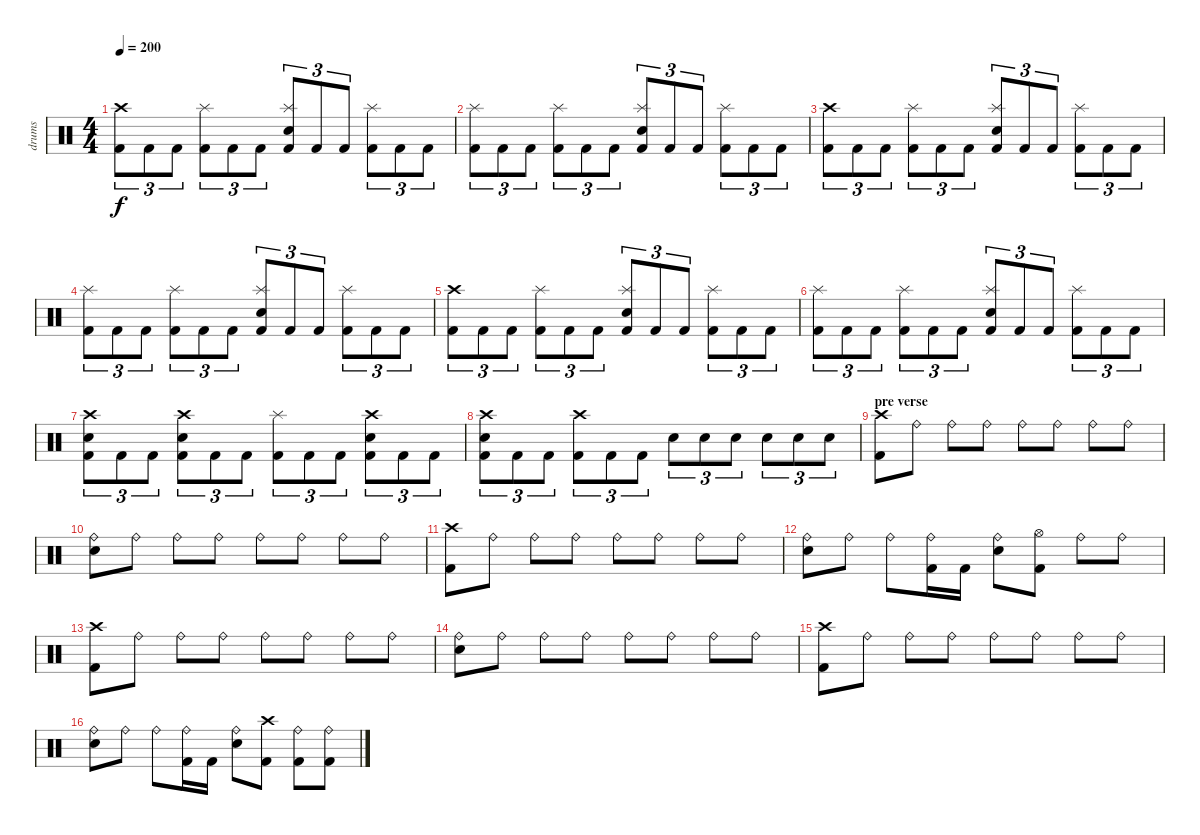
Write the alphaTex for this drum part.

\track ("drums" "drums") {instrument percussion}
\staff {score}
\articulation defaults
\ts (4 4)
\tempo 200
\clef neutral
\ks c
("Crash high (hit)" "Kick (hit) 2").8{tu (3 2) dy f} "Kick (hit) 2".8{tu (3 2)} "Kick (hit) 2".8{tu (3 2)} ("Splash (hit)" "Kick (hit) 2").8{tu (3 2)} "Kick (hit) 2".8{tu (3 2)} "Kick (hit) 2".8{tu (3 2)} ("Splash (hit)" "Electric Snare (hit)" "Kick (hit) 2").8{tu (3 2)} "Kick (hit) 2".8{tu (3 2)} "Kick (hit) 2".8{tu (3 2)} ("Splash (hit)" "Kick (hit) 2").8{tu (3 2)} "Kick (hit) 2".8{tu (3 2)} "Kick (hit) 2".8{tu (3 2)} |
("Splash (hit)" "Kick (hit) 2").8{tu (3 2)} "Kick (hit) 2".8{tu (3 2)} "Kick (hit) 2".8{tu (3 2)} ("Splash (hit)" "Kick (hit) 2").8{tu (3 2)} "Kick (hit) 2".8{tu (3 2)} "Kick (hit) 2".8{tu (3 2)} ("Splash (hit)" "Electric Snare (hit)" "Kick (hit) 2").8{tu (3 2)} "Kick (hit) 2".8{tu (3 2)} "Kick (hit) 2".8{tu (3 2)} ("Splash (hit)" "Kick (hit) 2").8{tu (3 2)} "Kick (hit) 2".8{tu (3 2)} "Kick (hit) 2".8{tu (3 2)} |
("Crash high (hit)" "Kick (hit) 2").8{tu (3 2)} "Kick (hit) 2".8{tu (3 2)} "Kick (hit) 2".8{tu (3 2)} ("Splash (hit)" "Kick (hit) 2").8{tu (3 2)} "Kick (hit) 2".8{tu (3 2)} "Kick (hit) 2".8{tu (3 2)} ("Splash (hit)" "Electric Snare (hit)" "Kick (hit) 2").8{tu (3 2)} "Kick (hit) 2".8{tu (3 2)} "Kick (hit) 2".8{tu (3 2)} ("Splash (hit)" "Kick (hit) 2").8{tu (3 2)} "Kick (hit) 2".8{tu (3 2)} "Kick (hit) 2".8{tu (3 2)} |
("Splash (hit)" "Kick (hit) 2").8{tu (3 2)} "Kick (hit) 2".8{tu (3 2)} "Kick (hit) 2".8{tu (3 2)} ("Splash (hit)" "Kick (hit) 2").8{tu (3 2)} "Kick (hit) 2".8{tu (3 2)} "Kick (hit) 2".8{tu (3 2)} ("Splash (hit)" "Electric Snare (hit)" "Kick (hit) 2").8{tu (3 2)} "Kick (hit) 2".8{tu (3 2)} "Kick (hit) 2".8{tu (3 2)} ("Splash (hit)" "Kick (hit) 2").8{tu (3 2)} "Kick (hit) 2".8{tu (3 2)} "Kick (hit) 2".8{tu (3 2)} |
("Crash high (hit)" "Kick (hit) 2").8{tu (3 2)} "Kick (hit) 2".8{tu (3 2)} "Kick (hit) 2".8{tu (3 2)} ("Splash (hit)" "Kick (hit) 2").8{tu (3 2)} "Kick (hit) 2".8{tu (3 2)} "Kick (hit) 2".8{tu (3 2)} ("Splash (hit)" "Electric Snare (hit)" "Kick (hit) 2").8{tu (3 2)} "Kick (hit) 2".8{tu (3 2)} "Kick (hit) 2".8{tu (3 2)} ("Splash (hit)" "Kick (hit) 2").8{tu (3 2)} "Kick (hit) 2".8{tu (3 2)} "Kick (hit) 2".8{tu (3 2)} |
("Splash (hit)" "Kick (hit) 2").8{tu (3 2)} "Kick (hit) 2".8{tu (3 2)} "Kick (hit) 2".8{tu (3 2)} ("Splash (hit)" "Kick (hit) 2").8{tu (3 2)} "Kick (hit) 2".8{tu (3 2)} "Kick (hit) 2".8{tu (3 2)} ("Splash (hit)" "Electric Snare (hit)" "Kick (hit) 2").8{tu (3 2)} "Kick (hit) 2".8{tu (3 2)} "Kick (hit) 2".8{tu (3 2)} ("Splash (hit)" "Kick (hit) 2").8{tu (3 2)} "Kick (hit) 2".8{tu (3 2)} "Kick (hit) 2".8{tu (3 2)} |
("Crash high (hit)" "Electric Snare (hit)" "Kick (hit) 2").8{tu (3 2)} "Kick (hit) 2".8{tu (3 2)} "Kick (hit) 2".8{tu (3 2)} ("Crash high (hit)" "Electric Snare (hit)" "Kick (hit) 2").8{tu (3 2)} "Kick (hit) 2".8{tu (3 2)} "Kick (hit) 2".8{tu (3 2)} ("Splash (hit)" "Kick (hit) 2").8{tu (3 2)} "Kick (hit) 2".8{tu (3 2)} "Kick (hit) 2".8{tu (3 2)} ("Crash high (hit)" "Electric Snare (hit)" "Kick (hit) 2").8{tu (3 2)} "Kick (hit) 2".8{tu (3 2)} "Kick (hit) 2".8{tu (3 2)} |
("Crash high (hit)" "Electric Snare (hit)" "Kick (hit) 2").8{tu (3 2)} "Kick (hit) 2".8{tu (3 2)} "Kick (hit) 2".8{tu (3 2)} ("Crash high (hit)" "Kick (hit) 2").8{tu (3 2)} "Kick (hit) 2".8{tu (3 2)} "Kick (hit) 2".8{tu (3 2)} "Electric Snare (hit)".8{tu (3 2)} "Electric Snare (hit)".8{tu (3 2)} "Electric Snare (hit)".8{tu (3 2)} "Electric Snare (hit)".8{tu (3 2)} "Electric Snare (hit)".8{tu (3 2)} "Electric Snare (hit)".8{tu (3 2)} |
\section ("" "pre verse ")
("Crash high (hit)" "Kick (hit) 2").8 "Ride (bell)".8 "Ride (bell)".8 "Ride (bell)".8 "Ride (bell)".8 "Ride (bell)".8 "Ride (bell)".8 "Ride (bell)".8 |
("Ride (bell)" "Electric Snare (hit)").8 "Ride (bell)".8 "Ride (bell)".8 "Ride (bell)".8 "Ride (bell)".8 "Ride (bell)".8 "Ride (bell)".8 "Ride (bell)".8 |
("Crash high (hit)" "Kick (hit) 2").8 "Ride (bell)".8 "Ride (bell)".8 "Ride (bell)".8 "Ride (bell)".8 "Ride (bell)".8 "Ride (bell)".8 "Ride (bell)".8 |
("Ride (bell)" "Electric Snare (hit)").8 "Ride (bell)".8 "Ride (bell)".8 ("Ride (bell)" "Kick (hit) 2").16 "Kick (hit) 2".16 ("Ride (bell)" "Electric Snare (hit)").8 ("Hi-Hat (open)" "Kick (hit) 2").8 "Ride (bell)".8 "Ride (bell)".8 |
("Crash high (hit)" "Kick (hit) 2").8 "Ride (bell)".8 "Ride (bell)".8 "Ride (bell)".8 "Ride (bell)".8 "Ride (bell)".8 "Ride (bell)".8 "Ride (bell)".8 |
("Ride (bell)" "Electric Snare (hit)").8 "Ride (bell)".8 "Ride (bell)".8 "Ride (bell)".8 "Ride (bell)".8 "Ride (bell)".8 "Ride (bell)".8 "Ride (bell)".8 |
("Crash high (hit)" "Kick (hit) 2").8 "Ride (bell)".8 "Ride (bell)".8 "Ride (bell)".8 "Ride (bell)".8 "Ride (bell)".8 "Ride (bell)".8 "Ride (bell)".8 |
("Ride (bell)" "Electric Snare (hit)").8 "Ride (bell)".8 "Ride (bell)".8 ("Ride (bell)" "Kick (hit) 2").16 "Kick (hit) 2".16 ("Ride (bell)" "Electric Snare (hit)").8 ("Crash high (hit)" "Kick (hit) 2").8 ("Ride (bell)" "Kick (hit) 2").8 ("Ride (bell)" "Kick (hit) 2").8
